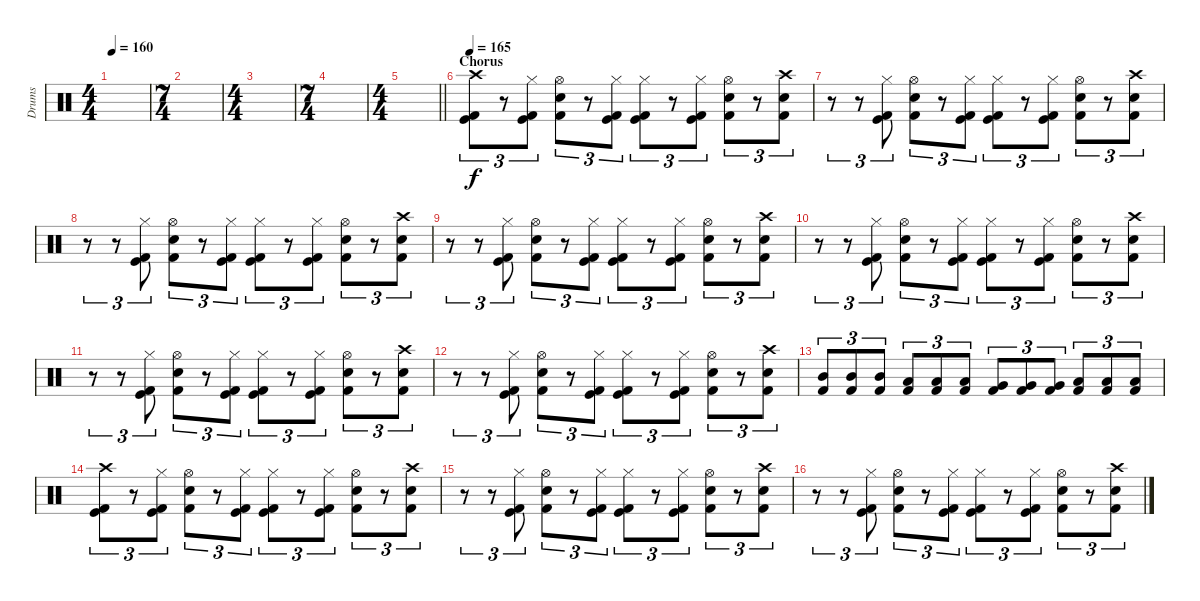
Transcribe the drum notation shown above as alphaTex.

\track ("Drums" "Drums") {instrument percussion}
\staff {score}
\articulation defaults
\ts (4 4)
\tempo 160
\clef neutral
\ks c
|
\ts (7 4)
|
\ts (4 4)
|
\ts (7 4)
|
\ts (4 4)
\barLineRight lightlight
|
\section ("" "Chorus")
\tempo 165
("Kick (hit)" "Kick (hit) 2" "Crash high (hit)").8{tu (3 2)} r.8{tu (3 2)} ("Kick (hit)" "Kick (hit) 2" "Hi-Hat (closed)").8{tu (3 2)} ("Snare (hit) 2" "Kick (hit) 2" "Hi-Hat (open)").8{tu (3 2)} r.8{tu (3 2)} ("Kick (hit)" "Kick (hit) 2" "Hi-Hat (closed)").8{tu (3 2)} ("Kick (hit)" "Kick (hit) 2" "Hi-Hat (closed)").8{tu (3 2)} r.8{tu (3 2)} ("Kick (hit)" "Kick (hit) 2" "Hi-Hat (closed)").8{tu (3 2)} ("Snare (hit) 2" "Kick (hit) 2" "Hi-Hat (open)").8{tu (3 2)} r.8{tu (3 2)} ("Snare (hit) 2" "Kick (hit) 2" "Crash high (hit)").8{tu (3 2)} |
r.8{tu (3 2)} r.8{tu (3 2)} ("Kick (hit)" "Kick (hit) 2" "Hi-Hat (closed)").8{tu (3 2)} ("Snare (hit) 2" "Kick (hit) 2" "Hi-Hat (open)").8{tu (3 2)} r.8{tu (3 2)} ("Kick (hit)" "Kick (hit) 2" "Hi-Hat (closed)").8{tu (3 2)} ("Kick (hit)" "Kick (hit) 2" "Hi-Hat (closed)").8{tu (3 2)} r.8{tu (3 2)} ("Kick (hit)" "Kick (hit) 2" "Hi-Hat (closed)").8{tu (3 2)} ("Snare (hit) 2" "Kick (hit) 2" "Hi-Hat (open)").8{tu (3 2)} r.8{tu (3 2)} ("Snare (hit) 2" "Kick (hit) 2" "Crash high (hit)").8{tu (3 2)} |
r.8{tu (3 2)} r.8{tu (3 2)} ("Kick (hit)" "Kick (hit) 2" "Hi-Hat (closed)").8{tu (3 2)} ("Snare (hit) 2" "Kick (hit) 2" "Hi-Hat (open)").8{tu (3 2)} r.8{tu (3 2)} ("Kick (hit)" "Kick (hit) 2" "Hi-Hat (closed)").8{tu (3 2)} ("Kick (hit)" "Kick (hit) 2" "Hi-Hat (closed)").8{tu (3 2)} r.8{tu (3 2)} ("Kick (hit)" "Kick (hit) 2" "Hi-Hat (closed)").8{tu (3 2)} ("Snare (hit) 2" "Kick (hit) 2" "Hi-Hat (open)").8{tu (3 2)} r.8{tu (3 2)} ("Snare (hit) 2" "Kick (hit) 2" "Crash high (hit)").8{tu (3 2)} |
r.8{tu (3 2)} r.8{tu (3 2)} ("Kick (hit)" "Kick (hit) 2" "Hi-Hat (closed)").8{tu (3 2)} ("Snare (hit) 2" "Kick (hit) 2" "Hi-Hat (open)").8{tu (3 2)} r.8{tu (3 2)} ("Kick (hit)" "Kick (hit) 2" "Hi-Hat (closed)").8{tu (3 2)} ("Kick (hit)" "Kick (hit) 2" "Hi-Hat (closed)").8{tu (3 2)} r.8{tu (3 2)} ("Kick (hit)" "Kick (hit) 2" "Hi-Hat (closed)").8{tu (3 2)} ("Snare (hit) 2" "Kick (hit) 2" "Hi-Hat (open)").8{tu (3 2)} r.8{tu (3 2)} ("Snare (hit) 2" "Kick (hit) 2" "Crash high (hit)").8{tu (3 2)} |
r.8{tu (3 2)} r.8{tu (3 2)} ("Kick (hit)" "Kick (hit) 2" "Hi-Hat (closed)").8{tu (3 2)} ("Snare (hit) 2" "Kick (hit) 2" "Hi-Hat (open)").8{tu (3 2)} r.8{tu (3 2)} ("Kick (hit)" "Kick (hit) 2" "Hi-Hat (closed)").8{tu (3 2)} ("Kick (hit)" "Kick (hit) 2" "Hi-Hat (closed)").8{tu (3 2)} r.8{tu (3 2)} ("Kick (hit)" "Kick (hit) 2" "Hi-Hat (closed)").8{tu (3 2)} ("Snare (hit) 2" "Kick (hit) 2" "Hi-Hat (open)").8{tu (3 2)} r.8{tu (3 2)} ("Snare (hit) 2" "Kick (hit) 2" "Crash high (hit)").8{tu (3 2)} |
r.8{tu (3 2)} r.8{tu (3 2)} ("Kick (hit)" "Kick (hit) 2" "Hi-Hat (closed)").8{tu (3 2)} ("Snare (hit) 2" "Kick (hit) 2" "Hi-Hat (open)").8{tu (3 2)} r.8{tu (3 2)} ("Kick (hit)" "Kick (hit) 2" "Hi-Hat (closed)").8{tu (3 2)} ("Kick (hit)" "Kick (hit) 2" "Hi-Hat (closed)").8{tu (3 2)} r.8{tu (3 2)} ("Kick (hit)" "Kick (hit) 2" "Hi-Hat (closed)").8{tu (3 2)} ("Snare (hit) 2" "Kick (hit) 2" "Hi-Hat (open)").8{tu (3 2)} r.8{tu (3 2)} ("Snare (hit) 2" "Kick (hit) 2" "Crash high (hit)").8{tu (3 2)} |
r.8{tu (3 2)} r.8{tu (3 2)} ("Kick (hit)" "Kick (hit) 2" "Hi-Hat (closed)").8{tu (3 2)} ("Snare (hit) 2" "Kick (hit) 2" "Hi-Hat (open)").8{tu (3 2)} r.8{tu (3 2)} ("Kick (hit)" "Kick (hit) 2" "Hi-Hat (closed)").8{tu (3 2)} ("Kick (hit)" "Kick (hit) 2" "Hi-Hat (closed)").8{tu (3 2)} r.8{tu (3 2)} ("Kick (hit)" "Kick (hit) 2" "Hi-Hat (closed)").8{tu (3 2)} ("Snare (hit) 2" "Kick (hit) 2" "Hi-Hat (open)").8{tu (3 2)} r.8{tu (3 2)} ("Snare (hit) 2" "Kick (hit) 2" "Crash high (hit)").8{tu (3 2)} |
("Mid Tom (hit)" "Kick (hit) 2").8{tu (3 2)} ("Mid Tom (hit)" "Kick (hit) 2").8{tu (3 2)} ("Mid Tom (hit)" "Kick (hit) 2").8{tu (3 2)} ("Low Tom (hit)" "Kick (hit) 2").8{tu (3 2)} ("Low Tom (hit)" "Kick (hit) 2").8{tu (3 2)} ("Low Tom (hit)" "Kick (hit) 2").8{tu (3 2)} ("Very Low Tom (hit)" "Kick (hit) 2").8{tu (3 2)} ("Very Low Tom (hit)" "Kick (hit) 2").8{tu (3 2)} ("Very Low Tom (hit)" "Kick (hit) 2").8{tu (3 2)} ("Low Tom (hit)" "Kick (hit) 2").8{tu (3 2)} ("Low Tom (hit)" "Kick (hit) 2").8{tu (3 2)} ("Low Tom (hit)" "Kick (hit) 2").8{tu (3 2)} |
("Kick (hit)" "Kick (hit) 2" "Crash high (hit)").8{tu (3 2)} r.8{tu (3 2)} ("Kick (hit)" "Kick (hit) 2" "Hi-Hat (closed)").8{tu (3 2)} ("Snare (hit) 2" "Kick (hit) 2" "Hi-Hat (open)").8{tu (3 2)} r.8{tu (3 2)} ("Kick (hit)" "Kick (hit) 2" "Hi-Hat (closed)").8{tu (3 2)} ("Kick (hit)" "Kick (hit) 2" "Hi-Hat (closed)").8{tu (3 2)} r.8{tu (3 2)} ("Kick (hit)" "Kick (hit) 2" "Hi-Hat (closed)").8{tu (3 2)} ("Snare (hit) 2" "Kick (hit) 2" "Hi-Hat (open)").8{tu (3 2)} r.8{tu (3 2)} ("Snare (hit) 2" "Kick (hit) 2" "Crash high (hit)").8{tu (3 2)} |
r.8{tu (3 2)} r.8{tu (3 2)} ("Kick (hit)" "Kick (hit) 2" "Hi-Hat (closed)").8{tu (3 2)} ("Snare (hit) 2" "Kick (hit) 2" "Hi-Hat (open)").8{tu (3 2)} r.8{tu (3 2)} ("Kick (hit)" "Kick (hit) 2" "Hi-Hat (closed)").8{tu (3 2)} ("Kick (hit)" "Kick (hit) 2" "Hi-Hat (closed)").8{tu (3 2)} r.8{tu (3 2)} ("Kick (hit)" "Kick (hit) 2" "Hi-Hat (closed)").8{tu (3 2)} ("Snare (hit) 2" "Kick (hit) 2" "Hi-Hat (open)").8{tu (3 2)} r.8{tu (3 2)} ("Snare (hit) 2" "Kick (hit) 2" "Crash high (hit)").8{tu (3 2)} |
r.8{tu (3 2)} r.8{tu (3 2)} ("Kick (hit)" "Kick (hit) 2" "Hi-Hat (closed)").8{tu (3 2)} ("Snare (hit) 2" "Kick (hit) 2" "Hi-Hat (open)").8{tu (3 2)} r.8{tu (3 2)} ("Kick (hit)" "Kick (hit) 2" "Hi-Hat (closed)").8{tu (3 2)} ("Kick (hit)" "Kick (hit) 2" "Hi-Hat (closed)").8{tu (3 2)} r.8{tu (3 2)} ("Kick (hit)" "Kick (hit) 2" "Hi-Hat (closed)").8{tu (3 2)} ("Snare (hit) 2" "Kick (hit) 2" "Hi-Hat (open)").8{tu (3 2)} r.8{tu (3 2)} ("Snare (hit) 2" "Kick (hit) 2" "Crash high (hit)").8{tu (3 2)}
